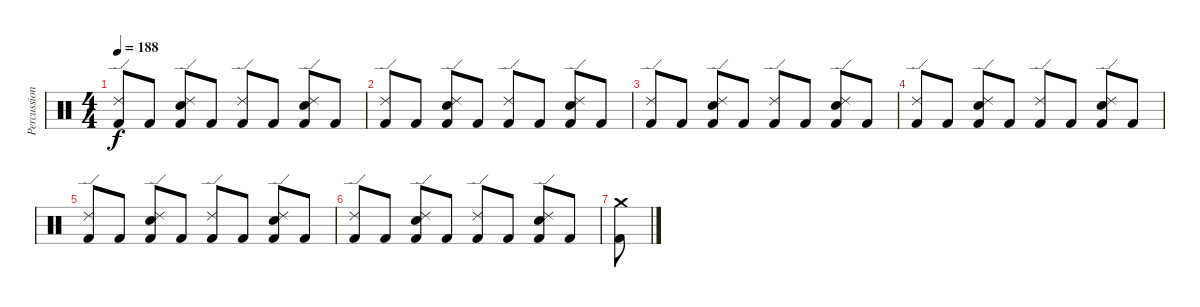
\track ("Percussion" "Percussion") {instrument percussion}
\staff {score}
\articulation defaults
\ts (4 4)
\tempo 188
\clef neutral
\ks c
("Ride (edge) 2" "Kick (hit) 2").8{dy f} "Kick (hit) 2".8 ("Ride (edge) 2" "Snare (hit) 2" "Kick (hit) 2").8 "Kick (hit) 2".8 ("Ride (edge) 2" "Kick (hit) 2").8 "Kick (hit) 2".8 ("Ride (edge) 2" "Snare (hit) 2" "Kick (hit) 2").8 "Kick (hit) 2".8 |
("Ride (edge) 2" "Kick (hit) 2").8 "Kick (hit) 2".8 ("Ride (edge) 2" "Snare (hit) 2" "Kick (hit) 2").8 "Kick (hit) 2".8 ("Ride (edge) 2" "Kick (hit) 2").8 "Kick (hit) 2".8 ("Ride (edge) 2" "Snare (hit) 2" "Kick (hit) 2").8 "Kick (hit) 2".8 |
("Ride (edge) 2" "Kick (hit) 2").8 "Kick (hit) 2".8 ("Ride (edge) 2" "Snare (hit) 2" "Kick (hit) 2").8 "Kick (hit) 2".8 ("Ride (edge) 2" "Kick (hit) 2").8 "Kick (hit) 2".8 ("Ride (edge) 2" "Snare (hit) 2" "Kick (hit) 2").8 "Kick (hit) 2".8 |
("Ride (edge) 2" "Kick (hit) 2").8 "Kick (hit) 2".8 ("Ride (edge) 2" "Snare (hit) 2" "Kick (hit) 2").8 "Kick (hit) 2".8 ("Ride (edge) 2" "Kick (hit) 2").8 "Kick (hit) 2".8 ("Ride (edge) 2" "Snare (hit) 2" "Kick (hit) 2").8 "Kick (hit) 2".8 |
("Ride (edge) 2" "Kick (hit) 2").8 "Kick (hit) 2".8 ("Ride (edge) 2" "Snare (hit) 2" "Kick (hit) 2").8 "Kick (hit) 2".8 ("Ride (edge) 2" "Kick (hit) 2").8 "Kick (hit) 2".8 ("Ride (edge) 2" "Snare (hit) 2" "Kick (hit) 2").8 "Kick (hit) 2".8 |
("Ride (edge) 2" "Kick (hit) 2").8 "Kick (hit) 2".8 ("Ride (edge) 2" "Snare (hit) 2" "Kick (hit) 2").8 "Kick (hit) 2".8 ("Ride (edge) 2" "Kick (hit) 2").8 "Kick (hit) 2".8 ("Ride (edge) 2" "Snare (hit) 2" "Kick (hit) 2").8 "Kick (hit) 2".8 |
("Crash medium (hit)" "Kick (hit) 2").8
